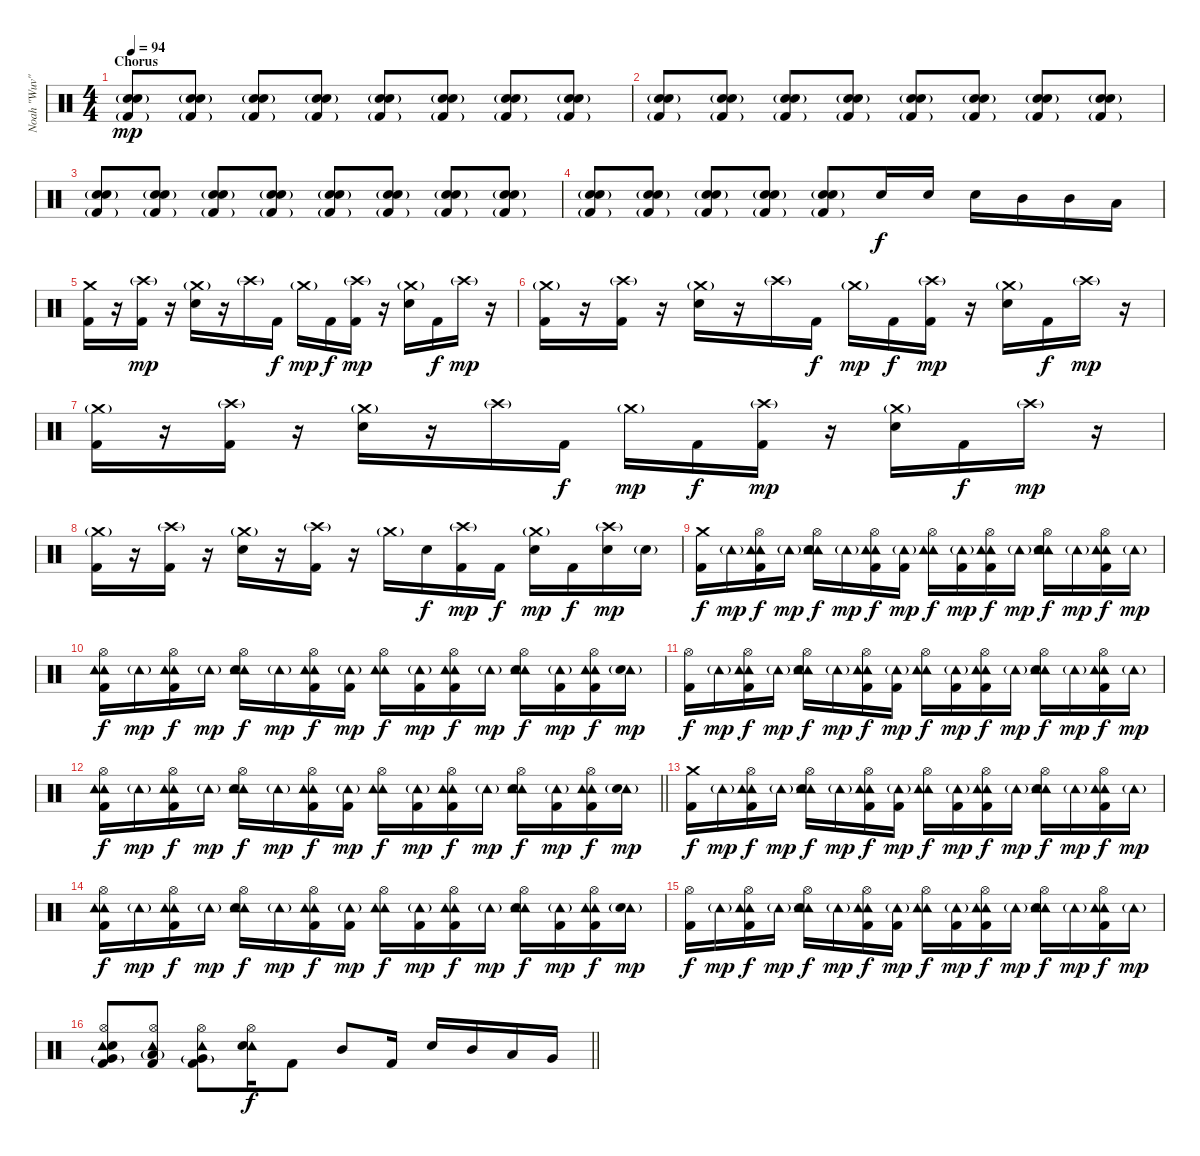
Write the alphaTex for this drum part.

\track ("Noah \"Wuv\" Bernardo" "Noah \"Wuv\"") {instrument percussion}
\staff {score}
\articulation defaults
\ts (4 4)
\section ("" "Chorus")
\tempo 94
\clef neutral
\ks c
("Electric Snare (hit)"{g} "Electric Snare (hit)" "Kick (hit) 2"{g}).8{dy mp} ("Electric Snare (hit)"{g} "Electric Snare (hit)" "Kick (hit) 2"{g}).8 ("Electric Snare (hit)"{g} "Electric Snare (hit)" "Kick (hit) 2"{g}).8 ("Electric Snare (hit)"{g} "Electric Snare (hit)" "Kick (hit) 2"{g}).8 ("Electric Snare (hit)"{g} "Electric Snare (hit)" "Kick (hit) 2"{g}).8 ("Electric Snare (hit)"{g} "Electric Snare (hit)" "Kick (hit) 2"{g}).8 ("Electric Snare (hit)"{g} "Electric Snare (hit)" "Kick (hit) 2"{g}).8 ("Electric Snare (hit)"{g} "Electric Snare (hit)" "Kick (hit) 2"{g}).8 |
("Electric Snare (hit)"{g} "Electric Snare (hit)" "Kick (hit) 2"{g}).8 ("Electric Snare (hit)"{g} "Electric Snare (hit)" "Kick (hit) 2"{g}).8 ("Electric Snare (hit)"{g} "Electric Snare (hit)" "Kick (hit) 2"{g}).8 ("Electric Snare (hit)"{g} "Electric Snare (hit)" "Kick (hit) 2"{g}).8 ("Electric Snare (hit)"{g} "Electric Snare (hit)" "Kick (hit) 2"{g}).8 ("Electric Snare (hit)"{g} "Electric Snare (hit)" "Kick (hit) 2"{g}).8 ("Electric Snare (hit)"{g} "Electric Snare (hit)" "Kick (hit) 2"{g}).8 ("Electric Snare (hit)"{g} "Electric Snare (hit)" "Kick (hit) 2"{g}).8 |
("Electric Snare (hit)"{g} "Electric Snare (hit)" "Kick (hit) 2"{g}).8 ("Electric Snare (hit)"{g} "Electric Snare (hit)" "Kick (hit) 2"{g}).8 ("Electric Snare (hit)"{g} "Electric Snare (hit)" "Kick (hit) 2"{g}).8 ("Electric Snare (hit)"{g} "Electric Snare (hit)" "Kick (hit) 2"{g}).8 ("Electric Snare (hit)"{g} "Electric Snare (hit)" "Kick (hit) 2"{g}).8 ("Electric Snare (hit)"{g} "Electric Snare (hit)" "Kick (hit) 2"{g}).8 ("Electric Snare (hit)"{g} "Electric Snare (hit)" "Kick (hit) 2"{g}).8 ("Electric Snare (hit)"{g} "Electric Snare (hit)" "Kick (hit) 2"{g}).8 |
("Electric Snare (hit)"{g} "Electric Snare (hit)" "Kick (hit) 2"{g}).8 ("Electric Snare (hit)"{g} "Electric Snare (hit)" "Kick (hit) 2"{g}).8 ("Electric Snare (hit)"{g} "Electric Snare (hit)" "Kick (hit) 2"{g}).8 ("Electric Snare (hit)"{g} "Electric Snare (hit)" "Kick (hit) 2"{g}).8 ("Electric Snare (hit)"{g} "Electric Snare (hit)" "Kick (hit) 2"{g}).8 "Electric Snare (hit)".16{dy f} "Electric Snare (hit)".16 "Electric Snare (hit)".16 "Mid Tom (hit)".16 "Mid Tom (hit)".16 "Low Tom (hit)".16 |
("Crash medium (hit)" "Kick (hit) 2").16 r.16 ("Crash high (hit)"{g} "Kick (hit) 2").16{dy mp} r.16 ("Crash medium (hit)"{g} "Electric Snare (hit)").16 r.16 "Crash high (hit)"{g}.16 "Kick (hit) 2".16{dy f} "Crash medium (hit)"{g}.16{dy mp} "Kick (hit) 2".16{dy f} ("Crash high (hit)"{g} "Kick (hit) 2").16{dy mp} r.16 ("Crash medium (hit)"{g} "Electric Snare (hit)").16 "Kick (hit) 2".16{dy f} "Crash high (hit)"{g}.16{dy mp} r.16 |
("Crash medium (hit)"{g} "Kick (hit) 2").16 r.16 ("Crash high (hit)"{g} "Kick (hit) 2").16 r.16 ("Crash medium (hit)"{g} "Electric Snare (hit)").16 r.16 "Crash high (hit)"{g}.16 "Kick (hit) 2".16{dy f} "Crash medium (hit)"{g}.16{dy mp} "Kick (hit) 2".16{dy f} ("Crash high (hit)"{g} "Kick (hit) 2").16{dy mp} r.16 ("Crash medium (hit)"{g} "Electric Snare (hit)").16 "Kick (hit) 2".16{dy f} "Crash high (hit)"{g}.16{dy mp} r.16 |
("Crash medium (hit)"{g} "Kick (hit) 2").16 r.16 ("Crash high (hit)"{g} "Kick (hit) 2").16 r.16 ("Crash medium (hit)"{g} "Electric Snare (hit)").16 r.16 "Crash high (hit)"{g}.16 "Kick (hit) 2".16{dy f} "Crash medium (hit)"{g}.16{dy mp} "Kick (hit) 2".16{dy f} ("Crash high (hit)"{g} "Kick (hit) 2").16{dy mp} r.16 ("Crash medium (hit)"{g} "Electric Snare (hit)").16 "Kick (hit) 2".16{dy f} "Crash high (hit)"{g}.16{dy mp} r.16 |
("Crash medium (hit)"{g} "Kick (hit) 2").16 r.16 ("Crash high (hit)"{g} "Kick (hit) 2").16 r.16 ("Crash medium (hit)"{g} "Electric Snare (hit)").16 r.16 ("Crash high (hit)"{g} "Kick (hit) 2").16 r.16 "Crash medium (hit)"{g}.16 "Electric Snare (hit)".16{dy f} ("Crash high (hit)"{g} "Kick (hit) 2").16{dy mp} "Kick (hit) 2".16{dy f} ("Crash medium (hit)"{g} "Electric Snare (hit)").16{dy mp} "Kick (hit) 2".16{dy f} ("Crash high (hit)"{g} "Electric Snare (hit)").16{dy mp} "Electric Snare (hit)"{g}.16 |
("Crash medium (hit)" "Kick (hit) 2").16{dy f} "Tambourine (hit)"{g}.16{dy mp} ("Hi-Hat (open)" "Tambourine (hit)" "Tambourine (hit)" "Kick (hit) 2").16{dy f} "Tambourine (hit)"{g}.16{dy mp} ("Hi-Hat (open)" "Tambourine (hit)" "Tambourine (hit)" "Electric Snare (hit)").16{dy f} "Tambourine (hit)"{g}.16{dy mp} ("Hi-Hat (open)" "Tambourine (hit)" "Tambourine (hit)" "Kick (hit) 2").16{dy f} ("Tambourine (hit)"{g} "Kick (hit) 2").16{dy mp} ("Hi-Hat (open)" "Tambourine (hit)" "Tambourine (hit)").16{dy f} ("Tambourine (hit)"{g} "Kick (hit) 2").16{dy mp} ("Hi-Hat (open)" "Tambourine (hit)" "Tambourine (hit)" "Kick (hit) 2").16{dy f} "Tambourine (hit)"{g}.16{dy mp} ("Hi-Hat (open)" "Tambourine (hit)" "Tambourine (hit)" "Electric Snare (hit)").16{dy f} "Tambourine (hit)"{g}.16{dy mp} ("Hi-Hat (open)" "Tambourine (hit)" "Tambourine (hit)" "Kick (hit) 2").16{dy f} "Tambourine (hit)"{g}.16{dy mp} |
("Hi-Hat (open)" "Tambourine (hit)" "Tambourine (hit)" "Kick (hit) 2").16{dy f} "Tambourine (hit)"{g}.16{dy mp} ("Hi-Hat (open)" "Tambourine (hit)" "Tambourine (hit)" "Kick (hit) 2").16{dy f} "Tambourine (hit)"{g}.16{dy mp} ("Hi-Hat (open)" "Tambourine (hit)" "Tambourine (hit)" "Electric Snare (hit)").16{dy f} "Tambourine (hit)"{g}.16{dy mp} ("Hi-Hat (open)" "Tambourine (hit)" "Tambourine (hit)" "Kick (hit) 2").16{dy f} ("Tambourine (hit)"{g} "Kick (hit) 2").16{dy mp} ("Hi-Hat (open)" "Tambourine (hit)" "Tambourine (hit)").16{dy f} ("Tambourine (hit)"{g} "Kick (hit) 2").16{dy mp} ("Hi-Hat (open)" "Tambourine (hit)" "Tambourine (hit)" "Kick (hit) 2").16{dy f} "Tambourine (hit)"{g}.16{dy mp} ("Hi-Hat (open)" "Tambourine (hit)" "Tambourine (hit)" "Electric Snare (hit)").16{dy f} ("Tambourine (hit)"{g} "Kick (hit) 2").16{dy mp} ("Hi-Hat (open)" "Tambourine (hit)" "Tambourine (hit)" "Kick (hit) 2").16{dy f} ("Tambourine (hit)"{g} "Electric Snare (hit)").16{dy mp} |
("Hi-Hat (open)" "Kick (hit) 2").16{dy f} "Tambourine (hit)"{g}.16{dy mp} ("Hi-Hat (open)" "Tambourine (hit)" "Tambourine (hit)" "Kick (hit) 2").16{dy f} "Tambourine (hit)"{g}.16{dy mp} ("Hi-Hat (open)" "Tambourine (hit)" "Tambourine (hit)" "Electric Snare (hit)").16{dy f} "Tambourine (hit)"{g}.16{dy mp} ("Hi-Hat (open)" "Tambourine (hit)" "Tambourine (hit)" "Kick (hit) 2").16{dy f} ("Tambourine (hit)"{g} "Kick (hit) 2").16{dy mp} ("Hi-Hat (open)" "Tambourine (hit)" "Tambourine (hit)").16{dy f} ("Tambourine (hit)"{g} "Kick (hit) 2").16{dy mp} ("Hi-Hat (open)" "Tambourine (hit)" "Tambourine (hit)" "Kick (hit) 2").16{dy f} "Tambourine (hit)"{g}.16{dy mp} ("Hi-Hat (open)" "Tambourine (hit)" "Tambourine (hit)" "Electric Snare (hit)").16{dy f} "Tambourine (hit)"{g}.16{dy mp} ("Hi-Hat (open)" "Tambourine (hit)" "Tambourine (hit)" "Kick (hit) 2").16{dy f} "Tambourine (hit)"{g}.16{dy mp} |
\barLineRight lightlight
("Hi-Hat (open)" "Tambourine (hit)" "Tambourine (hit)" "Kick (hit) 2").16{dy f} "Tambourine (hit)"{g}.16{dy mp} ("Hi-Hat (open)" "Tambourine (hit)" "Tambourine (hit)" "Kick (hit) 2").16{dy f} "Tambourine (hit)"{g}.16{dy mp} ("Hi-Hat (open)" "Tambourine (hit)" "Tambourine (hit)" "Electric Snare (hit)").16{dy f} "Tambourine (hit)"{g}.16{dy mp} ("Hi-Hat (open)" "Tambourine (hit)" "Tambourine (hit)" "Kick (hit) 2").16{dy f} ("Tambourine (hit)"{g} "Kick (hit) 2").16{dy mp} ("Hi-Hat (open)" "Tambourine (hit)" "Tambourine (hit)").16{dy f} ("Tambourine (hit)"{g} "Kick (hit) 2").16{dy mp} ("Hi-Hat (open)" "Tambourine (hit)" "Tambourine (hit)" "Kick (hit) 2").16{dy f} "Tambourine (hit)"{g}.16{dy mp} ("Hi-Hat (open)" "Tambourine (hit)" "Tambourine (hit)" "Electric Snare (hit)").16{dy f} ("Tambourine (hit)"{g} "Kick (hit) 2").16{dy mp} ("Hi-Hat (open)" "Tambourine (hit)" "Tambourine (hit)" "Kick (hit) 2").16{dy f} ("Tambourine (hit)"{g} "Electric Snare (hit)").16{dy mp} |
("Crash medium (hit)" "Kick (hit) 2").16{dy f} "Tambourine (hit)"{g}.16{dy mp} ("Hi-Hat (open)" "Tambourine (hit)" "Tambourine (hit)" "Kick (hit) 2").16{dy f} "Tambourine (hit)"{g}.16{dy mp} ("Hi-Hat (open)" "Tambourine (hit)" "Tambourine (hit)" "Electric Snare (hit)").16{dy f} "Tambourine (hit)"{g}.16{dy mp} ("Hi-Hat (open)" "Tambourine (hit)" "Tambourine (hit)" "Kick (hit) 2").16{dy f} ("Tambourine (hit)"{g} "Kick (hit) 2").16{dy mp} ("Hi-Hat (open)" "Tambourine (hit)" "Tambourine (hit)").16{dy f} ("Tambourine (hit)"{g} "Kick (hit) 2").16{dy mp} ("Hi-Hat (open)" "Tambourine (hit)" "Tambourine (hit)" "Kick (hit) 2").16{dy f} "Tambourine (hit)"{g}.16{dy mp} ("Hi-Hat (open)" "Tambourine (hit)" "Tambourine (hit)" "Electric Snare (hit)").16{dy f} "Tambourine (hit)"{g}.16{dy mp} ("Hi-Hat (open)" "Tambourine (hit)" "Tambourine (hit)" "Kick (hit) 2").16{dy f} "Tambourine (hit)"{g}.16{dy mp} |
("Hi-Hat (open)" "Tambourine (hit)" "Tambourine (hit)" "Kick (hit) 2").16{dy f} "Tambourine (hit)"{g}.16{dy mp} ("Hi-Hat (open)" "Tambourine (hit)" "Tambourine (hit)" "Kick (hit) 2").16{dy f} "Tambourine (hit)"{g}.16{dy mp} ("Hi-Hat (open)" "Tambourine (hit)" "Tambourine (hit)" "Electric Snare (hit)").16{dy f} "Tambourine (hit)"{g}.16{dy mp} ("Hi-Hat (open)" "Tambourine (hit)" "Tambourine (hit)" "Kick (hit) 2").16{dy f} ("Tambourine (hit)"{g} "Kick (hit) 2").16{dy mp} ("Hi-Hat (open)" "Tambourine (hit)" "Tambourine (hit)").16{dy f} ("Tambourine (hit)"{g} "Kick (hit) 2").16{dy mp} ("Hi-Hat (open)" "Tambourine (hit)" "Tambourine (hit)" "Kick (hit) 2").16{dy f} "Tambourine (hit)"{g}.16{dy mp} ("Hi-Hat (open)" "Tambourine (hit)" "Tambourine (hit)" "Electric Snare (hit)").16{dy f} ("Tambourine (hit)"{g} "Kick (hit) 2").16{dy mp} ("Hi-Hat (open)" "Tambourine (hit)" "Tambourine (hit)" "Kick (hit) 2").16{dy f} ("Tambourine (hit)"{g} "Electric Snare (hit)").16{dy mp} |
("Hi-Hat (open)" "Kick (hit) 2").16{dy f} "Tambourine (hit)"{g}.16{dy mp} ("Hi-Hat (open)" "Tambourine (hit)" "Tambourine (hit)" "Kick (hit) 2").16{dy f} "Tambourine (hit)"{g}.16{dy mp} ("Hi-Hat (open)" "Tambourine (hit)" "Tambourine (hit)" "Electric Snare (hit)").16{dy f} "Tambourine (hit)"{g}.16{dy mp} ("Hi-Hat (open)" "Tambourine (hit)" "Tambourine (hit)" "Kick (hit) 2").16{dy f} ("Tambourine (hit)"{g} "Kick (hit) 2").16{dy mp} ("Hi-Hat (open)" "Tambourine (hit)" "Tambourine (hit)").16{dy f} ("Tambourine (hit)"{g} "Kick (hit) 2").16{dy mp} ("Hi-Hat (open)" "Tambourine (hit)" "Tambourine (hit)" "Kick (hit) 2").16{dy f} "Tambourine (hit)"{g}.16{dy mp} ("Hi-Hat (open)" "Tambourine (hit)" "Tambourine (hit)" "Electric Snare (hit)").16{dy f} "Tambourine (hit)"{g}.16{dy mp} ("Hi-Hat (open)" "Tambourine (hit)" "Tambourine (hit)" "Kick (hit) 2").16{dy f} "Tambourine (hit)"{g}.16{dy mp} |
\barLineRight lightlight
("Hi-Hat (open)" "Tambourine (hit)" "Electric Snare (hit)" "Very Low Tom (hit)"{g} "Kick (hit) 2").8 ("Hi-Hat (open)" "Tambourine (hit)" "Low Floor Tom (hit)"{g} "Kick (hit) 2").8 ("Hi-Hat (open)" "Tambourine (hit)" "Very Low Tom (hit)"{g} "Kick (hit) 2").8 ("Hi-Hat (open)" "Tambourine (hit)" "Electric Snare (hit)").16{dy f} "Kick (hit) 2".8 "Mid Tom (hit)".8 "Kick (hit) 2".16 "Electric Snare (hit)".16 "Mid Tom (hit)".16 "Low Tom (hit)".16 "Very Low Tom (hit)".16
